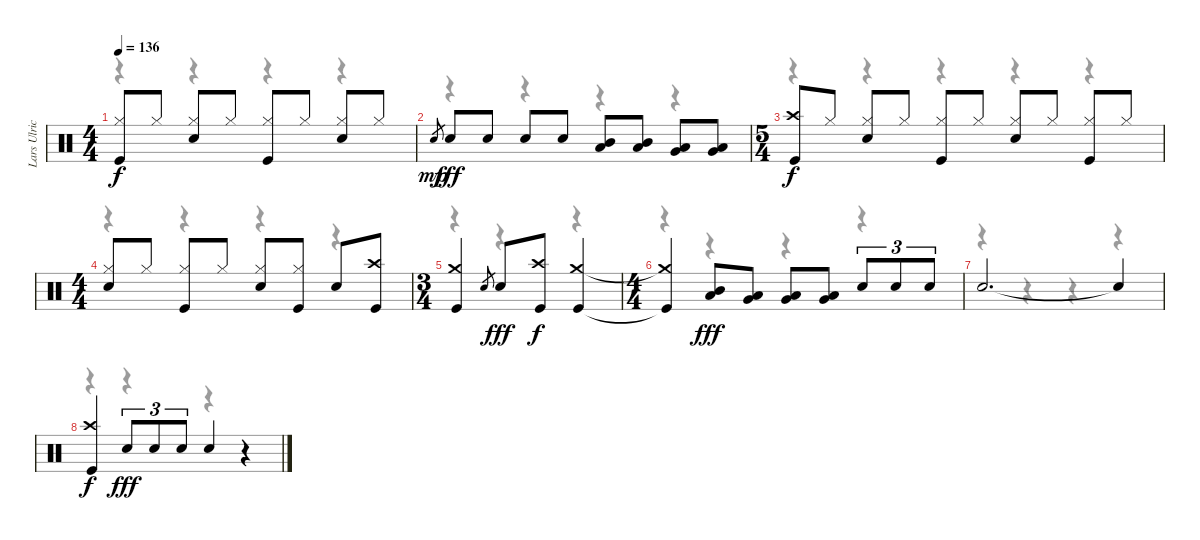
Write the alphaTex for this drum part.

\track ("Lars Ulrich" "Lars Ulric") {instrument percussion}
\staff {score}
\articulation defaults
\voice
\ts (4 4)
\tempo 136
\clef neutral
\ks c
("Hi-Hat (closed)" "Kick (hit)").8{dy f} "Hi-Hat (closed)".8 ("Hi-Hat (closed)" "Snare (hit) 2").8 "Hi-Hat (closed)".8 ("Hi-Hat (closed)" "Kick (hit)").8 "Hi-Hat (closed)".8 ("Hi-Hat (closed)" "Snare (hit) 2").8 "Hi-Hat (closed)".8 |
"Snare (hit)".8{gr dy mp} "Snare (hit) 2".8{dy fff} "Snare (hit) 2".8 "Snare (hit) 2".8 "Snare (hit) 2".8 ("Mid Tom (hit)" "Low Tom (hit)").8 ("Mid Tom (hit)" "Low Tom (hit)").8 ("Low Tom (hit)" "Very Low Tom (hit)").8 ("Low Tom (hit)" "Very Low Tom (hit)").8 |
\ts (5 4)
("Crash high (hit)" "Kick (hit)").8{dy f} "Hi-Hat (closed)".8 ("Hi-Hat (closed)" "Snare (hit) 2").8 "Hi-Hat (closed)".8 ("Hi-Hat (closed)" "Kick (hit)").8 "Hi-Hat (closed)".8 ("Hi-Hat (closed)" "Snare (hit) 2").8 "Hi-Hat (closed)".8 ("Hi-Hat (closed)" "Kick (hit)").8 "Hi-Hat (closed)".8 |
\ts (4 4)
("Hi-Hat (closed)" "Snare (hit) 2").8 "Hi-Hat (closed)".8 ("Hi-Hat (closed)" "Kick (hit)").8 "Hi-Hat (closed)".8 ("Hi-Hat (closed)" "Snare (hit) 2").8 ("Hi-Hat (closed)" "Kick (hit)").8 "Snare (hit) 2".8 ("Crash high (hit)" "Kick (hit)").8 |
\ts (3 4)
("Crash medium (hit)" "Kick (hit)").4 "Snare (hit)".8{gr} "Snare (hit) 2".8{dy fff} ("Crash high (hit)" "Kick (hit)").8{dy f} ("Crash medium (hit)" "Kick (hit)").4 |
\ts (4 4)
("Crash medium (hit)"{t} "Kick (hit)"{t}).4 ("Mid Tom (hit)" "Low Tom (hit)").8{dy fff} ("Low Tom (hit)" "Very Low Tom (hit)").8 ("Low Tom (hit)" "Very Low Tom (hit)").8 ("Very Low Tom (hit)" "Low Floor Tom (hit)").8 "Snare (hit) 2".8{tu (3 2)} "Snare (hit) 2".8{tu (3 2)} "Snare (hit) 2".8{tu (3 2)} |
"Snare (hit) 2".2{d} "Snare (hit) 2"{t}.4 |
("Crash high (hit)" "Kick (hit)").4{dy f} "Snare (hit) 2".8{tu (3 2) dy fff} "Snare (hit) 2".8{tu (3 2)} "Snare (hit) 2".8{tu (3 2)} "Snare (hit) 2".4 r.4
\voice
\clef neutral
\ottava regular
\simile none
\ks c
r.4{dy f} r.4 r.4 r.4 |
r.4 r.4 r.4 r.4 |
r.4 r.4 r.4 r.4 r.4 |
r.4 r.4 r.4 r.4 |
r.4 r.4 r.4 |
r.4 r.4 r.4 r.4 |
r.4 r.4 r.4 r.4 |
r.4 r.4 r.4 r.4
